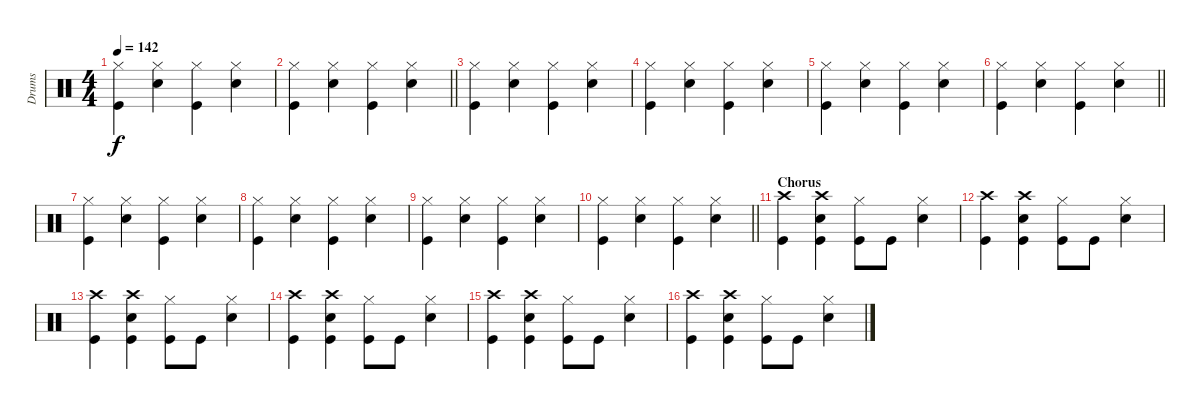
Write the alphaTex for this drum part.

\track ("Drums" "Drums") {instrument percussion}
\staff {score}
\articulation defaults
\ts (4 4)
\tempo 142
\clef neutral
\ks c
("Hi-Hat (closed)" "Kick (hit)").4{dy f} ("Hi-Hat (closed)" "Snare (hit) 2").4 ("Hi-Hat (closed)" "Kick (hit)").4 ("Hi-Hat (closed)" "Snare (hit) 2").4 |
\barLineRight lightlight
("Hi-Hat (closed)" "Kick (hit)").4 ("Hi-Hat (closed)" "Snare (hit) 2").4 ("Hi-Hat (closed)" "Kick (hit)").4 ("Hi-Hat (closed)" "Snare (hit) 2").4 |
("Hi-Hat (closed)" "Kick (hit)").4 ("Hi-Hat (closed)" "Snare (hit) 2").4 ("Hi-Hat (closed)" "Kick (hit)").4 ("Hi-Hat (closed)" "Snare (hit) 2").4 |
("Hi-Hat (closed)" "Kick (hit)").4 ("Hi-Hat (closed)" "Snare (hit) 2").4 ("Hi-Hat (closed)" "Kick (hit)").4 ("Hi-Hat (closed)" "Snare (hit) 2").4 |
("Hi-Hat (closed)" "Kick (hit)").4 ("Hi-Hat (closed)" "Snare (hit) 2").4 ("Hi-Hat (closed)" "Kick (hit)").4 ("Hi-Hat (closed)" "Snare (hit) 2").4 |
\barLineRight lightlight
("Hi-Hat (closed)" "Kick (hit)").4 ("Hi-Hat (closed)" "Snare (hit) 2").4 ("Hi-Hat (closed)" "Kick (hit)").4 ("Hi-Hat (closed)" "Snare (hit) 2").4 |
("Hi-Hat (closed)" "Kick (hit)").4 ("Hi-Hat (closed)" "Snare (hit) 2").4 ("Hi-Hat (closed)" "Kick (hit)").4 ("Hi-Hat (closed)" "Snare (hit) 2").4 |
("Hi-Hat (closed)" "Kick (hit)").4 ("Hi-Hat (closed)" "Snare (hit) 2").4 ("Hi-Hat (closed)" "Kick (hit)").4 ("Hi-Hat (closed)" "Snare (hit) 2").4 |
("Hi-Hat (closed)" "Kick (hit)").4 ("Hi-Hat (closed)" "Snare (hit) 2").4 ("Hi-Hat (closed)" "Kick (hit)").4 ("Hi-Hat (closed)" "Snare (hit) 2").4 |
\barLineRight lightlight
("Hi-Hat (closed)" "Kick (hit)").4 ("Hi-Hat (closed)" "Snare (hit) 2").4 ("Hi-Hat (closed)" "Kick (hit)").4 ("Hi-Hat (closed)" "Snare (hit) 2").4 |
\section ("" "Chorus")
("Crash high (hit)" "Kick (hit)").4 ("Crash high (hit)" "Snare (hit) 2" "Kick (hit)").4 ("Hi-Hat (closed)" "Kick (hit)").8 "Kick (hit)".8 ("Hi-Hat (closed)" "Snare (hit) 2").4 |
("Crash high (hit)" "Kick (hit)").4 ("Crash high (hit)" "Snare (hit) 2" "Kick (hit)").4 ("Hi-Hat (closed)" "Kick (hit)").8 "Kick (hit)".8 ("Hi-Hat (closed)" "Snare (hit) 2").4 |
("Crash high (hit)" "Kick (hit)").4 ("Crash high (hit)" "Snare (hit) 2" "Kick (hit)").4 ("Hi-Hat (closed)" "Kick (hit)").8 "Kick (hit)".8 ("Hi-Hat (closed)" "Snare (hit) 2").4 |
("Crash high (hit)" "Kick (hit)").4 ("Crash high (hit)" "Snare (hit) 2" "Kick (hit)").4 ("Hi-Hat (closed)" "Kick (hit)").8 "Kick (hit)".8 ("Hi-Hat (closed)" "Snare (hit) 2").4 |
("Crash high (hit)" "Kick (hit)").4 ("Crash high (hit)" "Snare (hit) 2" "Kick (hit)").4 ("Hi-Hat (closed)" "Kick (hit)").8 "Kick (hit)".8 ("Hi-Hat (closed)" "Snare (hit) 2").4 |
("Crash high (hit)" "Kick (hit)").4 ("Crash high (hit)" "Snare (hit) 2" "Kick (hit)").4 ("Hi-Hat (closed)" "Kick (hit)").8 "Kick (hit)".8 ("Hi-Hat (closed)" "Snare (hit) 2").4
